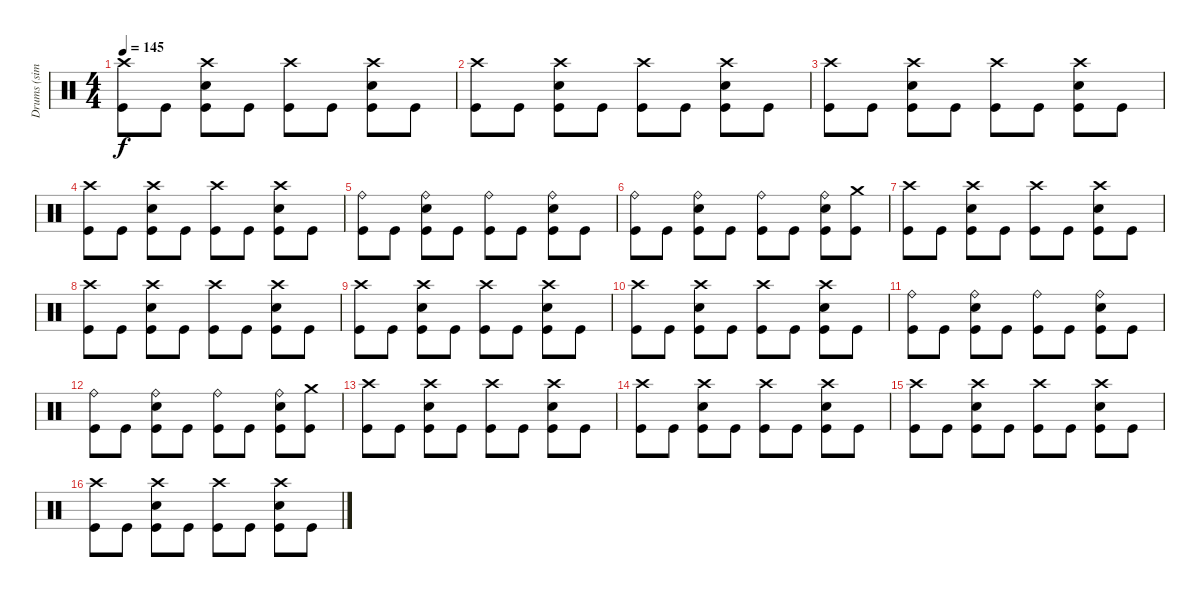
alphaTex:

\track ("Drums (simple)" "Drums (sim") {instrument percussion}
\staff {score}
\articulation defaults
\ts (4 4)
\tempo 145
\clef neutral
\ks c
("Crash high (hit)" "Kick (hit)").8{dy f} "Kick (hit)".8 ("Crash high (hit)" "Snare (hit) 2" "Kick (hit)").8 "Kick (hit)".8 ("Crash high (hit)" "Kick (hit)").8 "Kick (hit)".8 ("Crash high (hit)" "Snare (hit) 2" "Kick (hit)").8 "Kick (hit)".8 |
("Crash high (hit)" "Kick (hit)").8 "Kick (hit)".8 ("Crash high (hit)" "Snare (hit) 2" "Kick (hit)").8 "Kick (hit)".8 ("Crash high (hit)" "Kick (hit)").8 "Kick (hit)".8 ("Crash high (hit)" "Snare (hit) 2" "Kick (hit)").8 "Kick (hit)".8 |
("Crash high (hit)" "Kick (hit)").8 "Kick (hit)".8 ("Crash high (hit)" "Snare (hit) 2" "Kick (hit)").8 "Kick (hit)".8 ("Crash high (hit)" "Kick (hit)").8 "Kick (hit)".8 ("Crash high (hit)" "Snare (hit) 2" "Kick (hit)").8 "Kick (hit)".8 |
("Crash high (hit)" "Kick (hit)").8 "Kick (hit)".8 ("Crash high (hit)" "Snare (hit) 2" "Kick (hit)").8 "Kick (hit)".8 ("Crash high (hit)" "Kick (hit)").8 "Kick (hit)".8 ("Crash high (hit)" "Snare (hit) 2" "Kick (hit)").8 "Kick (hit)".8 |
("Ride (bell)" "Kick (hit)").8 "Kick (hit)".8 ("Ride (bell)" "Snare (hit) 2" "Kick (hit)").8 "Kick (hit)".8 ("Ride (bell)" "Kick (hit)").8 "Kick (hit)".8 ("Ride (bell)" "Snare (hit) 2" "Kick (hit)").8 "Kick (hit)".8 |
("Ride (bell)" "Kick (hit)").8 "Kick (hit)".8 ("Ride (bell)" "Snare (hit) 2" "Kick (hit)").8 "Kick (hit)".8 ("Ride (bell)" "Kick (hit)").8 "Kick (hit)".8 ("Ride (bell)" "Snare (hit) 2" "Kick (hit)").8 ("Crash medium (hit)" "Kick (hit)").8 |
("Crash high (hit)" "Kick (hit)").8 "Kick (hit)".8 ("Crash high (hit)" "Snare (hit) 2" "Kick (hit)").8 "Kick (hit)".8 ("Crash high (hit)" "Kick (hit)").8 "Kick (hit)".8 ("Crash high (hit)" "Snare (hit) 2" "Kick (hit)").8 "Kick (hit)".8 |
("Crash high (hit)" "Kick (hit)").8 "Kick (hit)".8 ("Crash high (hit)" "Snare (hit) 2" "Kick (hit)").8 "Kick (hit)".8 ("Crash high (hit)" "Kick (hit)").8 "Kick (hit)".8 ("Crash high (hit)" "Snare (hit) 2" "Kick (hit)").8 "Kick (hit)".8 |
("Crash high (hit)" "Kick (hit)").8 "Kick (hit)".8 ("Crash high (hit)" "Snare (hit) 2" "Kick (hit)").8 "Kick (hit)".8 ("Crash high (hit)" "Kick (hit)").8 "Kick (hit)".8 ("Crash high (hit)" "Snare (hit) 2" "Kick (hit)").8 "Kick (hit)".8 |
("Crash high (hit)" "Kick (hit)").8 "Kick (hit)".8 ("Crash high (hit)" "Snare (hit) 2" "Kick (hit)").8 "Kick (hit)".8 ("Crash high (hit)" "Kick (hit)").8 "Kick (hit)".8 ("Crash high (hit)" "Snare (hit) 2" "Kick (hit)").8 "Kick (hit)".8 |
("Ride (bell)" "Kick (hit)").8 "Kick (hit)".8 ("Ride (bell)" "Snare (hit) 2" "Kick (hit)").8 "Kick (hit)".8 ("Ride (bell)" "Kick (hit)").8 "Kick (hit)".8 ("Ride (bell)" "Snare (hit) 2" "Kick (hit)").8 "Kick (hit)".8 |
("Ride (bell)" "Kick (hit)").8 "Kick (hit)".8 ("Ride (bell)" "Snare (hit) 2" "Kick (hit)").8 "Kick (hit)".8 ("Ride (bell)" "Kick (hit)").8 "Kick (hit)".8 ("Ride (bell)" "Snare (hit) 2" "Kick (hit)").8 ("Crash medium (hit)" "Kick (hit)").8 |
("Crash high (hit)" "Kick (hit)").8 "Kick (hit)".8 ("Crash high (hit)" "Snare (hit) 2" "Kick (hit)").8 "Kick (hit)".8 ("Crash high (hit)" "Kick (hit)").8 "Kick (hit)".8 ("Crash high (hit)" "Snare (hit) 2" "Kick (hit)").8 "Kick (hit)".8 |
("Crash high (hit)" "Kick (hit)").8 "Kick (hit)".8 ("Crash high (hit)" "Snare (hit) 2" "Kick (hit)").8 "Kick (hit)".8 ("Crash high (hit)" "Kick (hit)").8 "Kick (hit)".8 ("Crash high (hit)" "Snare (hit) 2" "Kick (hit)").8 "Kick (hit)".8 |
("Crash high (hit)" "Kick (hit)").8 "Kick (hit)".8 ("Crash high (hit)" "Snare (hit) 2" "Kick (hit)").8 "Kick (hit)".8 ("Crash high (hit)" "Kick (hit)").8 "Kick (hit)".8 ("Crash high (hit)" "Snare (hit) 2" "Kick (hit)").8 "Kick (hit)".8 |
("Crash high (hit)" "Kick (hit)").8 "Kick (hit)".8 ("Crash high (hit)" "Snare (hit) 2" "Kick (hit)").8 "Kick (hit)".8 ("Crash high (hit)" "Kick (hit)").8 "Kick (hit)".8 ("Crash high (hit)" "Snare (hit) 2" "Kick (hit)").8 "Kick (hit)".8
